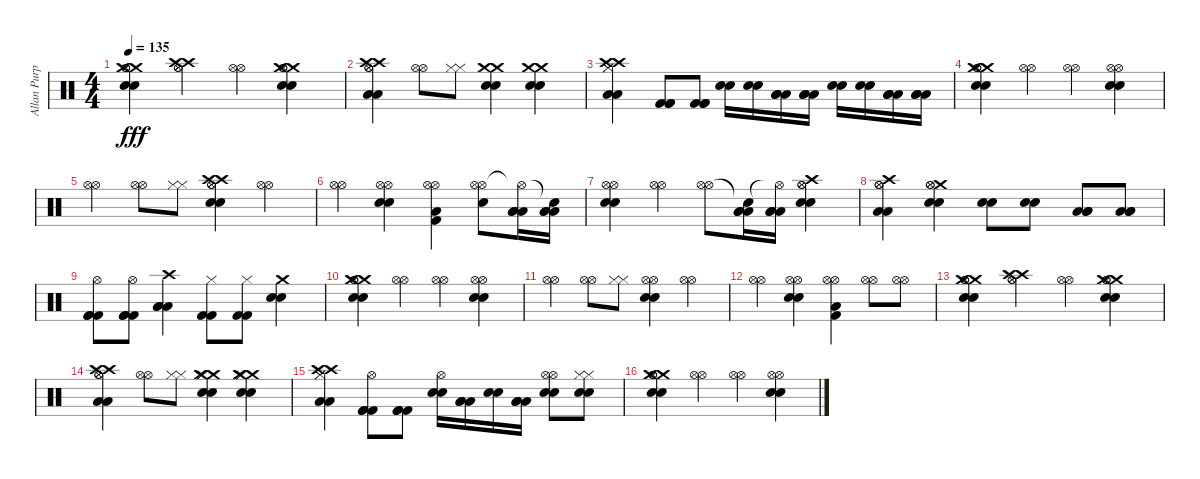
\track ("Allan Purple" "Allan Purp") {instrument percussion}
\staff {score}
\articulation defaults
\ts (4 4)
\tempo 135
\clef neutral
\ks c
("Crash medium (hit)" "Crash medium (hit)" "Hi-Hat (open)" "Hi-Hat (open)" "Electric Snare (hit)" "Electric Snare (hit)").4{dy fff} ("Crash high (hit)" "Crash high (hit)" "Hi-Hat (open)" "Hi-Hat (open)").4 ("Hi-Hat (open)" "Hi-Hat (open)").4 ("Crash medium (hit)" "Crash medium (hit)" "Hi-Hat (open)" "Hi-Hat (open)" "Electric Snare (hit)" "Electric Snare (hit)").4 |
("Crash high (hit)" "Crash high (hit)" "Hi-Hat (open)" "Hi-Hat (open)" "Low Tom (hit)" "Low Tom (hit)").4 ("Hi-Hat (open)" "Hi-Hat (open)").8 ("Hi-Hat (closed)" "Hi-Hat (closed)").8 ("Crash medium (hit)" "Crash medium (hit)" "Electric Snare (hit)" "Electric Snare (hit)").4 ("Crash medium (hit)" "Crash medium (hit)" "Electric Snare (hit)" "Electric Snare (hit)").4 |
("Crash high (hit)" "Crash high (hit)" "Hi-Hat (closed)" "Hi-Hat (closed)" "Low Tom (hit)" "Low Tom (hit)").4 ("Kick (hit) 2" "Kick (hit) 2" "Kick (hit) 2").8 ("Kick (hit) 2" "Kick (hit) 2" "Kick (hit) 2").8 ("Electric Snare (hit)" "Electric Snare (hit)").16 ("Electric Snare (hit)" "Electric Snare (hit)").16 ("Low Tom (hit)" "Low Tom (hit)" "Low Tom (hit)").16 ("Low Tom (hit)" "Low Tom (hit)" "Low Tom (hit)").16 ("Electric Snare (hit)" "Electric Snare (hit)").16 ("Electric Snare (hit)" "Electric Snare (hit)").16 ("Low Tom (hit)" "Low Tom (hit)" "Low Tom (hit)").16 ("Low Tom (hit)" "Low Tom (hit)" "Low Tom (hit)").16 |
("Crash medium (hit)" "Crash medium (hit)" "Hi-Hat (open)" "Hi-Hat (open)" "Electric Snare (hit)" "Electric Snare (hit)").4 ("Hi-Hat (open)" "Hi-Hat (open)").4 ("Hi-Hat (open)" "Hi-Hat (open)").4 ("Hi-Hat (open)" "Hi-Hat (open)" "Electric Snare (hit)" "Electric Snare (hit)").4 |
("Hi-Hat (open)" "Hi-Hat (open)").4 ("Hi-Hat (open)" "Hi-Hat (open)").8 ("Hi-Hat (closed)" "Hi-Hat (closed)").8 ("Crash high (hit)" "Crash high (hit)" "Hi-Hat (open)" "Hi-Hat (open)" "Electric Snare (hit)" "Electric Snare (hit)").4 ("Hi-Hat (open)" "Hi-Hat (open)").4 |
("Hi-Hat (open)" "Hi-Hat (open)").4 ("Hi-Hat (open)" "Hi-Hat (open)" "Electric Snare (hit)" "Electric Snare (hit)").4 ("Hi-Hat (open)" "Hi-Hat (open)" "Kick (hit) 2" "Low Tom (hit)").4 ("Hi-Hat (open)" "Hi-Hat (open)" "Electric Snare (hit)").8 ("Hi-Hat (open)"{t} "Low Tom (hit)" "Low Tom (hit)" "Low Tom (hit)").16 ("Snare (hit)"{t} "Low Tom (hit)" "Low Tom (hit)" "Low Tom (hit)").16 |
("Hi-Hat (open)" "Hi-Hat (open)" "Electric Snare (hit)" "Electric Snare (hit)").4 ("Hi-Hat (open)" "Hi-Hat (open)").4 ("Hi-Hat (open)" "Hi-Hat (open)").8 ("Snare (hit)"{t} "Low Tom (hit)" "Low Tom (hit)" "Low Tom (hit)").16 ("Hi-Hat (open)"{t} "Low Tom (hit)" "Low Tom (hit)" "Low Tom (hit)").16 ("Crash high (hit)" "Hi-Hat (open)" "Hi-Hat (open)" "Electric Snare (hit)" "Electric Snare (hit)").4 |
("Crash high (hit)" "Hi-Hat (open)" "Hi-Hat (open)" "Low Tom (hit)" "Low Tom (hit)").4 ("Crash medium (hit)" "Hi-Hat (open)" "Hi-Hat (open)" "Electric Snare (hit)" "Electric Snare (hit)").4 ("Electric Snare (hit)" "Electric Snare (hit)").8 ("Electric Snare (hit)" "Electric Snare (hit)").8 ("Low Tom (hit)" "Low Tom (hit)" "Low Tom (hit)").8 ("Low Tom (hit)" "Low Tom (hit)" "Low Tom (hit)").8 |
("Hi-Hat (open)" "Kick (hit) 2" "Kick (hit) 2" "Kick (hit) 2").8 ("Hi-Hat (open)" "Kick (hit) 2" "Kick (hit) 2" "Kick (hit) 2").8 ("Crash high (hit)" "Low Tom (hit)" "Low Tom (hit)" "Low Tom (hit)").4 ("Hi-Hat (closed)" "Kick (hit) 2" "Kick (hit) 2").8 ("Hi-Hat (closed)" "Kick (hit) 2" "Kick (hit) 2").8 ("Crash medium (hit)" "Electric Snare (hit)" "Electric Snare (hit)").4 |
("Crash medium (hit)" "Crash medium (hit)" "Hi-Hat (open)" "Hi-Hat (open)" "Electric Snare (hit)" "Electric Snare (hit)").4 ("Hi-Hat (open)" "Hi-Hat (open)").4 ("Hi-Hat (open)" "Hi-Hat (open)").4 ("Hi-Hat (open)" "Hi-Hat (open)" "Electric Snare (hit)" "Electric Snare (hit)").4 |
("Hi-Hat (open)" "Hi-Hat (open)").4 ("Hi-Hat (open)" "Hi-Hat (open)").8 ("Hi-Hat (closed)" "Hi-Hat (closed)").8 ("Hi-Hat (open)" "Hi-Hat (open)" "Electric Snare (hit)" "Electric Snare (hit)").4 ("Hi-Hat (open)" "Hi-Hat (open)").4 |
("Hi-Hat (open)" "Hi-Hat (open)").4 ("Hi-Hat (open)" "Hi-Hat (open)" "Electric Snare (hit)" "Electric Snare (hit)").4 ("Hi-Hat (open)" "Hi-Hat (open)" "Kick (hit) 2" "Low Tom (hit)").4 ("Hi-Hat (open)" "Hi-Hat (open)").8 ("Hi-Hat (open)" "Hi-Hat (open)").8 |
("Crash medium (hit)" "Crash medium (hit)" "Hi-Hat (open)" "Hi-Hat (open)" "Electric Snare (hit)" "Electric Snare (hit)").4 ("Crash high (hit)" "Crash high (hit)" "Hi-Hat (open)" "Hi-Hat (open)").4 ("Hi-Hat (open)" "Hi-Hat (open)").4 ("Crash medium (hit)" "Crash medium (hit)" "Hi-Hat (open)" "Hi-Hat (open)" "Electric Snare (hit)" "Electric Snare (hit)").4 |
("Crash high (hit)" "Crash high (hit)" "Hi-Hat (open)" "Hi-Hat (open)" "Low Tom (hit)" "Low Tom (hit)").4 ("Hi-Hat (open)" "Hi-Hat (open)").8 ("Hi-Hat (closed)" "Hi-Hat (closed)").8 ("Crash medium (hit)" "Crash medium (hit)" "Hi-Hat (closed)" "Hi-Hat (closed)" "Electric Snare (hit)" "Electric Snare (hit)").4 ("Crash medium (hit)" "Crash medium (hit)" "Hi-Hat (closed)" "Hi-Hat (closed)" "Electric Snare (hit)" "Electric Snare (hit)").4 |
("Crash high (hit)" "Crash high (hit)" "Hi-Hat (closed)" "Hi-Hat (closed)" "Low Tom (hit)" "Low Tom (hit)").4 ("Hi-Hat (open)" "Kick (hit) 2" "Kick (hit) 2" "Kick (hit) 2").8 ("Kick (hit) 2" "Kick (hit) 2" "Kick (hit) 2").8 ("Hi-Hat (open)" "Electric Snare (hit)" "Electric Snare (hit)").16 ("Low Tom (hit)" "Low Tom (hit)" "Low Tom (hit)").16 ("Electric Snare (hit)" "Electric Snare (hit)").16 ("Low Tom (hit)" "Low Tom (hit)" "Low Tom (hit)").16 ("Hi-Hat (open)" "Hi-Hat (open)" "Electric Snare (hit)" "Electric Snare (hit)").8 ("Hi-Hat (closed)" "Hi-Hat (closed)" "Electric Snare (hit)" "Electric Snare (hit)").8 |
("Crash medium (hit)" "Crash medium (hit)" "Hi-Hat (open)" "Hi-Hat (open)" "Electric Snare (hit)" "Electric Snare (hit)").4 ("Hi-Hat (open)" "Hi-Hat (open)").4 ("Hi-Hat (open)" "Hi-Hat (open)").4 ("Hi-Hat (open)" "Hi-Hat (open)" "Electric Snare (hit)" "Electric Snare (hit)").4
